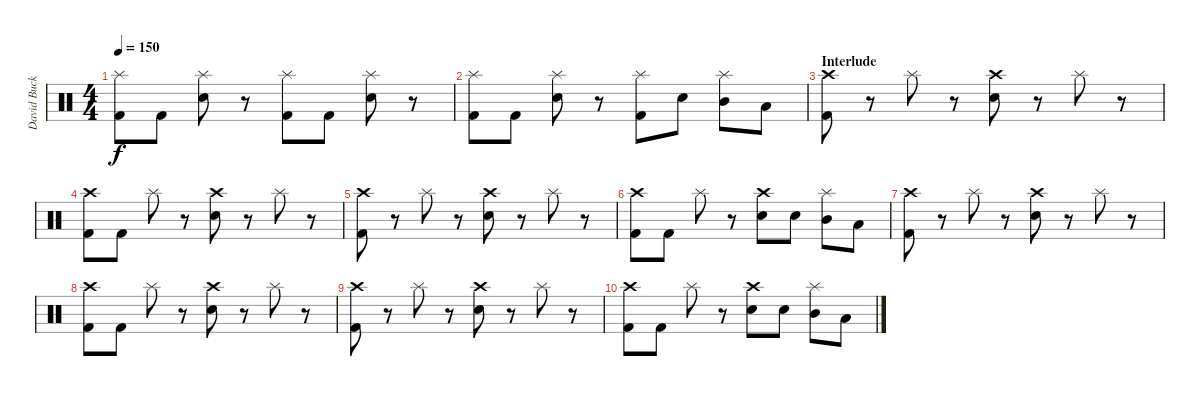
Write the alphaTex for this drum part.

\track ("David Buckner" "David Buck") {instrument percussion}
\staff {score}
\articulation defaults
\ts (4 4)
\tempo 150
\clef neutral
\ks c
("Splash (hit)" "Kick (hit) 2").8{dy f} "Kick (hit) 2".8 ("Splash (hit)" "Snare (hit) 2").8 r.8 ("Splash (hit)" "Kick (hit) 2").8 "Kick (hit) 2".8 ("Splash (hit)" "Snare (hit) 2").8 r.8 |
("Splash (hit)" "Kick (hit) 2").8 "Kick (hit) 2".8 ("Splash (hit)" "Snare (hit) 2").8 r.8 ("Splash (hit)" "Kick (hit) 2").8 "Snare (hit) 2".8 ("Splash (hit)" "Mid Tom (hit)").8 "Low Tom (hit)".8 |
\section ("" "Interlude")
("Crash high (hit)" "Kick (hit) 2").8 r.8 "Splash (hit)".8 r.8 ("Crash high (hit)" "Snare (hit) 2").8 r.8 "Splash (hit)".8 r.8 |
("Crash high (hit)" "Kick (hit) 2").8 "Kick (hit) 2".8 "Splash (hit)".8 r.8 ("Crash high (hit)" "Snare (hit) 2").8 r.8 "Splash (hit)".8 r.8 |
("Crash high (hit)" "Kick (hit) 2").8 r.8 "Splash (hit)".8 r.8 ("Crash high (hit)" "Snare (hit) 2").8 r.8 "Splash (hit)".8 r.8 |
("Crash high (hit)" "Kick (hit) 2").8 "Kick (hit) 2".8 "Splash (hit)".8 r.8 ("Crash high (hit)" "Snare (hit) 2").8 "Snare (hit) 2".8 ("Splash (hit)" "Mid Tom (hit)").8 "Low Tom (hit)".8 |
("Crash high (hit)" "Kick (hit) 2").8 r.8 "Splash (hit)".8 r.8 ("Crash high (hit)" "Snare (hit) 2").8 r.8 "Splash (hit)".8 r.8 |
("Crash high (hit)" "Kick (hit) 2").8 "Kick (hit) 2".8 "Splash (hit)".8 r.8 ("Crash high (hit)" "Snare (hit) 2").8 r.8 "Splash (hit)".8 r.8 |
("Crash high (hit)" "Kick (hit) 2").8 r.8 "Splash (hit)".8 r.8 ("Crash high (hit)" "Snare (hit) 2").8 r.8 "Splash (hit)".8 r.8 |
("Crash high (hit)" "Kick (hit) 2").8 "Kick (hit) 2".8 "Splash (hit)".8 r.8 ("Crash high (hit)" "Snare (hit) 2").8 "Snare (hit) 2".8 ("Splash (hit)" "Mid Tom (hit)").8 "Low Tom (hit)".8
